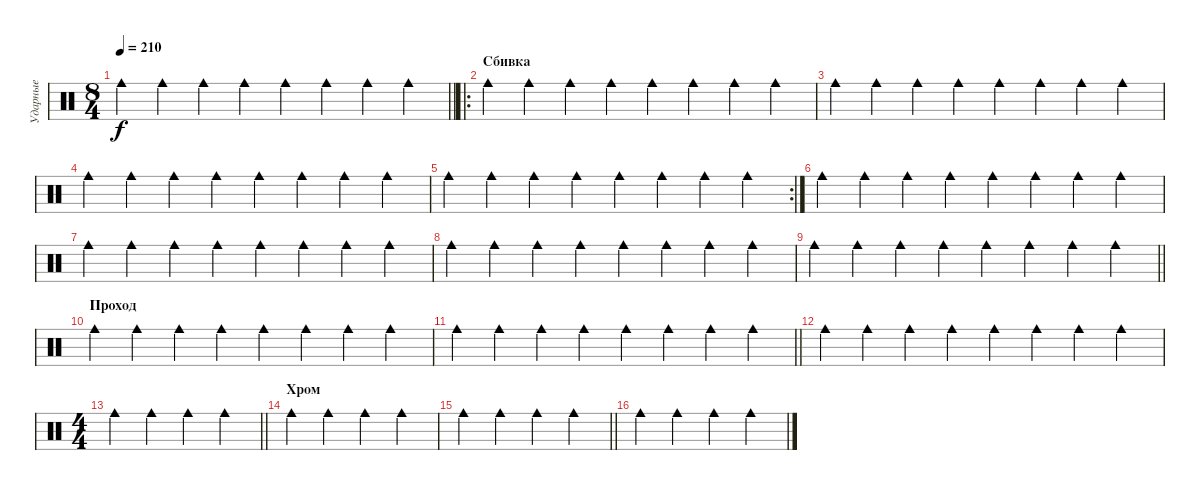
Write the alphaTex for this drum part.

\track ("Ударные" "Ударные") {mute instrument percussion}
\staff {score}
\articulation defaults
\ts (8 4)
\tempo 210
\clef neutral
\barLineRight lightlight
\ks c "Cowbell medium (hit)".4{dy f} "Cowbell medium (hit)".4 "Cowbell medium (hit)".4 "Cowbell medium (hit)".4 "Cowbell medium (hit)".4 "Cowbell medium (hit)".4 "Cowbell medium (hit)".4 "Cowbell medium (hit)".4
|
\ro
\section ("" "Сбивка")
"Cowbell medium (hit)".4 "Cowbell medium (hit)".4 "Cowbell medium (hit)".4 "Cowbell medium (hit)".4 "Cowbell medium (hit)".4 "Cowbell medium (hit)".4 "Cowbell medium (hit)".4 "Cowbell medium (hit)".4 |
"Cowbell medium (hit)".4 "Cowbell medium (hit)".4 "Cowbell medium (hit)".4 "Cowbell medium (hit)".4 "Cowbell medium (hit)".4 "Cowbell medium (hit)".4 "Cowbell medium (hit)".4 "Cowbell medium (hit)".4 |
"Cowbell medium (hit)".4 "Cowbell medium (hit)".4 "Cowbell medium (hit)".4 "Cowbell medium (hit)".4 "Cowbell medium (hit)".4 "Cowbell medium (hit)".4 "Cowbell medium (hit)".4 "Cowbell medium (hit)".4 |
\rc 2 "Cowbell medium (hit)".4 "Cowbell medium (hit)".4 "Cowbell medium (hit)".4 "Cowbell medium (hit)".4 "Cowbell medium (hit)".4 "Cowbell medium (hit)".4 "Cowbell medium (hit)".4 "Cowbell medium (hit)".4
|
"Cowbell medium (hit)".4 "Cowbell medium (hit)".4 "Cowbell medium (hit)".4 "Cowbell medium (hit)".4 "Cowbell medium (hit)".4 "Cowbell medium (hit)".4 "Cowbell medium (hit)".4 "Cowbell medium (hit)".4 |
"Cowbell medium (hit)".4 "Cowbell medium (hit)".4 "Cowbell medium (hit)".4 "Cowbell medium (hit)".4 "Cowbell medium (hit)".4 "Cowbell medium (hit)".4 "Cowbell medium (hit)".4 "Cowbell medium (hit)".4 |
"Cowbell medium (hit)".4 "Cowbell medium (hit)".4 "Cowbell medium (hit)".4 "Cowbell medium (hit)".4 "Cowbell medium (hit)".4 "Cowbell medium (hit)".4 "Cowbell medium (hit)".4 "Cowbell medium (hit)".4 |
\barLineRight lightlight "Cowbell medium (hit)".4 "Cowbell medium (hit)".4 "Cowbell medium (hit)".4 "Cowbell medium (hit)".4 "Cowbell medium (hit)".4 "Cowbell medium (hit)".4 "Cowbell medium (hit)".4 "Cowbell medium (hit)".4
|
\section ("" "Проход")
"Cowbell medium (hit)".4 "Cowbell medium (hit)".4 "Cowbell medium (hit)".4 "Cowbell medium (hit)".4 "Cowbell medium (hit)".4 "Cowbell medium (hit)".4 "Cowbell medium (hit)".4 "Cowbell medium (hit)".4 |
\barLineRight lightlight "Cowbell medium (hit)".4 "Cowbell medium (hit)".4 "Cowbell medium (hit)".4 "Cowbell medium (hit)".4 "Cowbell medium (hit)".4 "Cowbell medium (hit)".4 "Cowbell medium (hit)".4 "Cowbell medium (hit)".4
|
"Cowbell medium (hit)".4 "Cowbell medium (hit)".4 "Cowbell medium (hit)".4 "Cowbell medium (hit)".4 "Cowbell medium (hit)".4 "Cowbell medium (hit)".4 "Cowbell medium (hit)".4 "Cowbell medium (hit)".4 |
\ts (4 4)
\barLineRight lightlight "Cowbell medium (hit)".4 "Cowbell medium (hit)".4 "Cowbell medium (hit)".4 "Cowbell medium (hit)".4
|
\section ("" "Хром")
"Cowbell medium (hit)".4 "Cowbell medium (hit)".4 "Cowbell medium (hit)".4 "Cowbell medium (hit)".4 |
\barLineRight lightlight "Cowbell medium (hit)".4 "Cowbell medium (hit)".4 "Cowbell medium (hit)".4 "Cowbell medium (hit)".4
|
"Cowbell medium (hit)".4 "Cowbell medium (hit)".4 "Cowbell medium (hit)".4 "Cowbell medium (hit)".4
